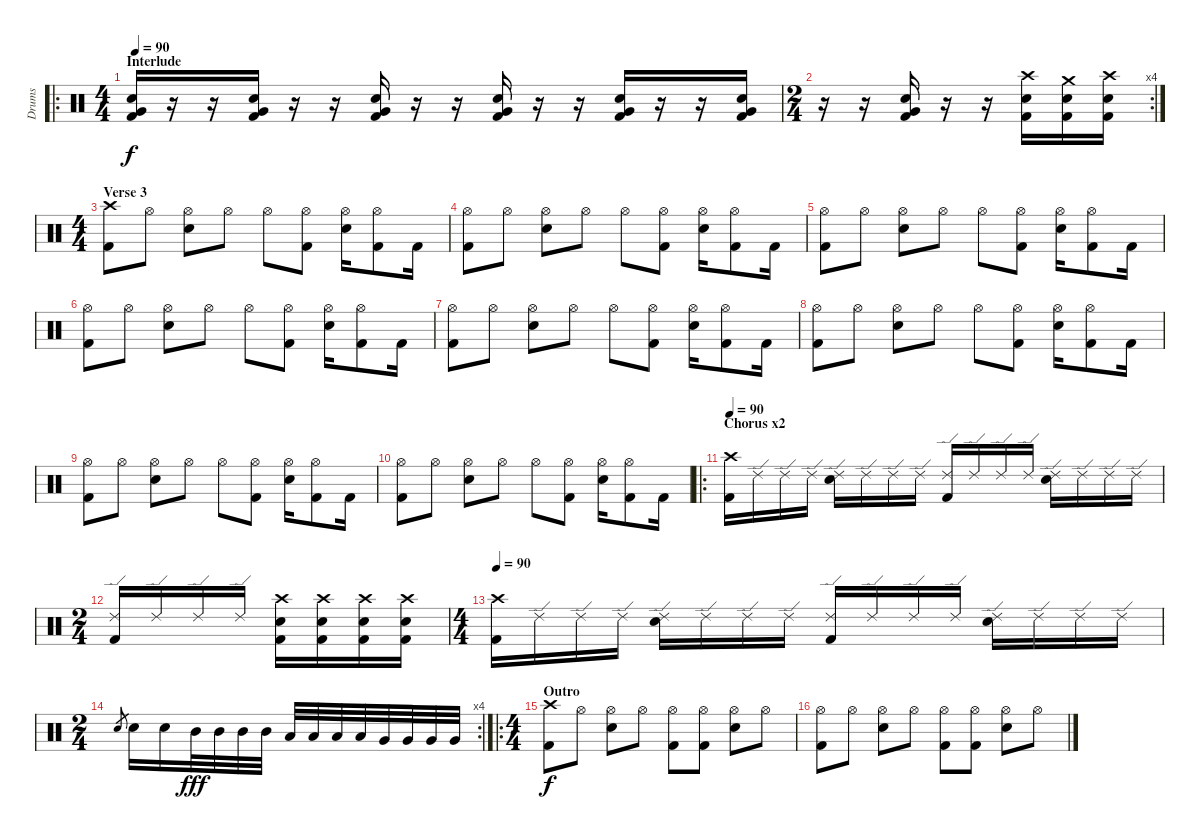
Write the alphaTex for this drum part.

\track ("Drums" "Drums") {instrument percussion}
\staff {score}
\articulation defaults
\ro
\ts (4 4)
\section ("" "Interlude")
\tempo 90
\clef neutral
\ks c
("Electric Snare (hit)" "Kick (hit) 2" "Very Low Tom (hit)").16{dy f} r.16 r.16 ("Electric Snare (hit)" "Kick (hit) 2" "Very Low Tom (hit)").16 r.16 r.16 ("Electric Snare (hit)" "Kick (hit) 2" "Very Low Tom (hit)").16 r.16 r.16 ("Electric Snare (hit)" "Kick (hit) 2" "Very Low Tom (hit)").16 r.16 r.16 ("Electric Snare (hit)" "Kick (hit) 2" "Very Low Tom (hit)").16 r.16 r.16 ("Electric Snare (hit)" "Kick (hit) 2" "Very Low Tom (hit)").16 |
\rc 4
\ts (2 4)
r.16 r.16 ("Electric Snare (hit)" "Kick (hit) 2" "Very Low Tom (hit)").16 r.16 r.16 ("Crash high (hit)" "Electric Snare (hit)" "Kick (hit) 2").16 ("Crash medium (hit)" "Electric Snare (hit)" "Kick (hit) 2").16 ("Crash high (hit)" "Electric Snare (hit)" "Kick (hit) 2").16 |
\ts (4 4)
\section ("" "Verse 3")
("Crash high (hit)" "Kick (hit) 2").8 "Hi-Hat (open)".8 ("Hi-Hat (open)" "Electric Snare (hit)").8 "Hi-Hat (open)".8 "Hi-Hat (open)".8 ("Hi-Hat (open)" "Kick (hit) 2").8 ("Hi-Hat (open)" "Electric Snare (hit)").16 ("Hi-Hat (open)" "Kick (hit) 2").8 "Kick (hit) 2".16 |
("Hi-Hat (open)" "Kick (hit) 2").8 "Hi-Hat (open)".8 ("Hi-Hat (open)" "Electric Snare (hit)").8 "Hi-Hat (open)".8 "Hi-Hat (open)".8 ("Hi-Hat (open)" "Kick (hit) 2").8 ("Hi-Hat (open)" "Electric Snare (hit)").16 ("Hi-Hat (open)" "Kick (hit) 2").8 "Kick (hit) 2".16 |
("Hi-Hat (open)" "Kick (hit) 2").8 "Hi-Hat (open)".8 ("Hi-Hat (open)" "Electric Snare (hit)").8 "Hi-Hat (open)".8 "Hi-Hat (open)".8 ("Hi-Hat (open)" "Kick (hit) 2").8 ("Hi-Hat (open)" "Electric Snare (hit)").16 ("Hi-Hat (open)" "Kick (hit) 2").8 "Kick (hit) 2".16 |
("Hi-Hat (open)" "Kick (hit) 2").8 "Hi-Hat (open)".8 ("Hi-Hat (open)" "Electric Snare (hit)").8 "Hi-Hat (open)".8 "Hi-Hat (open)".8 ("Hi-Hat (open)" "Kick (hit) 2").8 ("Hi-Hat (open)" "Electric Snare (hit)").16 ("Hi-Hat (open)" "Kick (hit) 2").8 "Kick (hit) 2".16 |
("Hi-Hat (open)" "Kick (hit) 2").8 "Hi-Hat (open)".8 ("Hi-Hat (open)" "Electric Snare (hit)").8 "Hi-Hat (open)".8 "Hi-Hat (open)".8 ("Hi-Hat (open)" "Kick (hit) 2").8 ("Hi-Hat (open)" "Electric Snare (hit)").16 ("Hi-Hat (open)" "Kick (hit) 2").8 "Kick (hit) 2".16 |
("Hi-Hat (open)" "Kick (hit) 2").8 "Hi-Hat (open)".8 ("Hi-Hat (open)" "Electric Snare (hit)").8 "Hi-Hat (open)".8 "Hi-Hat (open)".8 ("Hi-Hat (open)" "Kick (hit) 2").8 ("Hi-Hat (open)" "Electric Snare (hit)").16 ("Hi-Hat (open)" "Kick (hit) 2").8 "Kick (hit) 2".16 |
("Hi-Hat (open)" "Kick (hit) 2").8 "Hi-Hat (open)".8 ("Hi-Hat (open)" "Electric Snare (hit)").8 "Hi-Hat (open)".8 "Hi-Hat (open)".8 ("Hi-Hat (open)" "Kick (hit) 2").8 ("Hi-Hat (open)" "Electric Snare (hit)").16 ("Hi-Hat (open)" "Kick (hit) 2").8 "Kick (hit) 2".16 |
("Hi-Hat (open)" "Kick (hit) 2").8 "Hi-Hat (open)".8 ("Hi-Hat (open)" "Electric Snare (hit)").8 "Hi-Hat (open)".8 "Hi-Hat (open)".8 ("Hi-Hat (open)" "Kick (hit) 2").8 ("Hi-Hat (open)" "Electric Snare (hit)").16 ("Hi-Hat (open)" "Kick (hit) 2").8 "Kick (hit) 2".16 |
\ro
\section ("" "Chorus x2")
\tempo 90
("Crash high (hit)" "Kick (hit) 2").16 "Ride (edge) 2".16 "Ride (edge) 2".16 "Ride (edge) 2".16 ("Ride (edge) 2" "Electric Snare (hit)").16 "Ride (edge) 2".16 "Ride (edge) 2".16 "Ride (edge) 2".16 ("Ride (edge) 2" "Kick (hit) 2").16 "Ride (edge) 2".16 "Ride (edge) 2".16 "Ride (edge) 2".16 ("Ride (edge) 2" "Electric Snare (hit)").16 "Ride (edge) 2".16 "Ride (edge) 2".16 "Ride (edge) 2".16 |
\ts (2 4)
("Ride (edge) 2" "Kick (hit) 2").16 "Ride (edge) 2".16 "Ride (edge) 2".16 "Ride (edge) 2".16 ("Crash high (hit)" "Electric Snare (hit)" "Kick (hit) 2").16 ("Crash high (hit)" "Electric Snare (hit)" "Kick (hit) 2").16 ("Crash high (hit)" "Electric Snare (hit)" "Kick (hit) 2").16 ("Crash high (hit)" "Electric Snare (hit)" "Kick (hit) 2").16 |
\ts (4 4)
\tempo 90
("Crash high (hit)" "Kick (hit) 2").16 "Ride (edge) 2".16 "Ride (edge) 2".16 "Ride (edge) 2".16 ("Ride (edge) 2" "Electric Snare (hit)").16 "Ride (edge) 2".16 "Ride (edge) 2".16 "Ride (edge) 2".16 ("Ride (edge) 2" "Kick (hit) 2").16 "Ride (edge) 2".16 "Ride (edge) 2".16 "Ride (edge) 2".16 ("Ride (edge) 2" "Electric Snare (hit)").16 "Ride (edge) 2".16 "Ride (edge) 2".16 "Ride (edge) 2".16 |
\rc 4
\ts (2 4)
"Electric Snare (hit)".8{gr} "Electric Snare (hit)".16 "Electric Snare (hit)".16 "Mid Tom (hit)".32{dy fff} "Mid Tom (hit)".32 "Mid Tom (hit)".32 "Mid Tom (hit)".32 "Low Tom (hit)".32 "Low Tom (hit)".32 "Low Tom (hit)".32 "Low Tom (hit)".32 "Very Low Tom (hit)".32 "Very Low Tom (hit)".32 "Very Low Tom (hit)".32 "Very Low Tom (hit)".32 |
\ro
\ts (4 4)
\section ("" "Outro")
("Crash high (hit)" "Kick (hit) 2").8{dy f} "Hi-Hat (open)".8 ("Hi-Hat (open)" "Electric Snare (hit)").8 "Hi-Hat (open)".8 ("Hi-Hat (open)" "Kick (hit) 2").8 ("Hi-Hat (open)" "Kick (hit) 2").8 ("Hi-Hat (open)" "Electric Snare (hit)").8 "Hi-Hat (open)".8 |
("Hi-Hat (open)" "Kick (hit) 2").8 "Hi-Hat (open)".8 ("Hi-Hat (open)" "Electric Snare (hit)").8 "Hi-Hat (open)".8 ("Hi-Hat (open)" "Kick (hit) 2").8 ("Hi-Hat (open)" "Kick (hit) 2").8 ("Hi-Hat (open)" "Electric Snare (hit)").8 "Hi-Hat (open)".8
